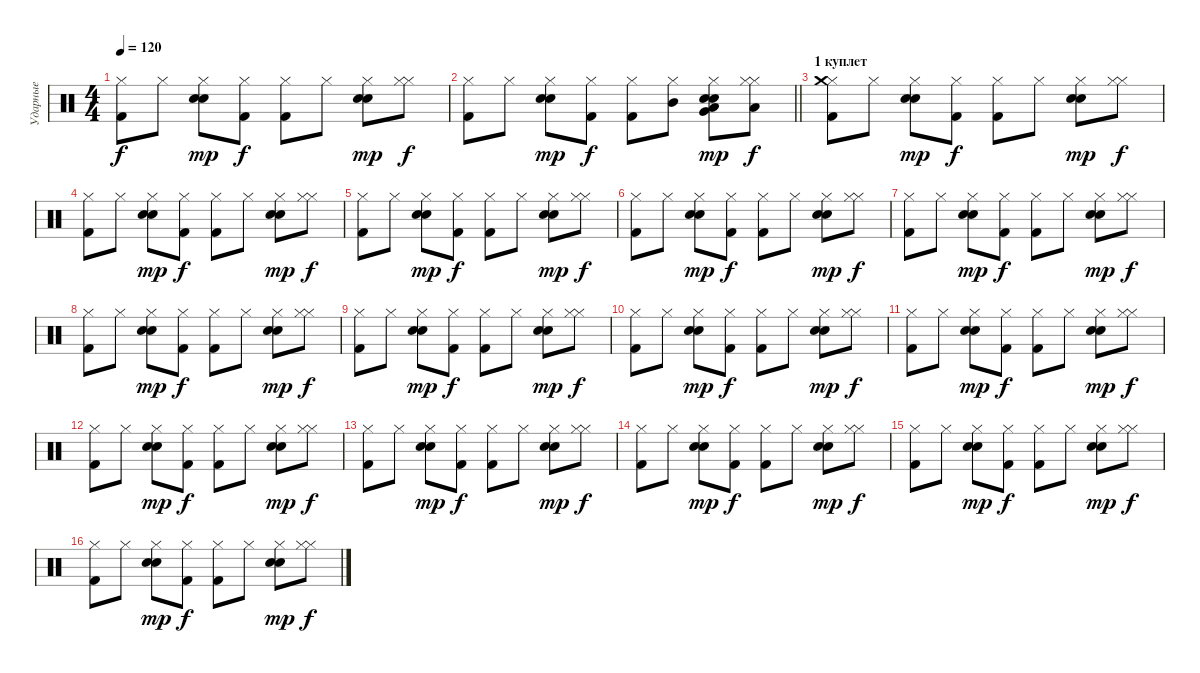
\track ("Ударные" "Ударные") {instrument percussion}
\staff {score}
\articulation defaults
\ts (4 4)
\tempo 120
\clef neutral
\ks c
("Kick (hit) 2" "Hi-Hat (closed)").8{dy f} "Hi-Hat (closed)".8 ("Hand Clap (hit)" "Hi-Hat (closed)" "Electric Snare (hit)").8{dy mp} ("Kick (hit) 2" "Hi-Hat (closed)").8{dy f} ("Kick (hit) 2" "Hi-Hat (closed)").8 "Hi-Hat (closed)".8 ("Hand Clap (hit)" "Hi-Hat (closed)" "Electric Snare (hit)").8{dy mp} ("Hi-Hat (closed)" "Hi-Hat (closed)").8{dy f} |
\barLineRight lightlight
("Kick (hit) 2" "Hi-Hat (closed)").8 "Hi-Hat (closed)".8 ("Hand Clap (hit)" "Hi-Hat (closed)" "Electric Snare (hit)").8{dy mp} ("Kick (hit) 2" "Hi-Hat (closed)").8{dy f} ("Kick (hit) 2" "Hi-Hat (closed)").8 ("Hi-Hat (closed)" "Mid Tom (hit)").8 ("Hand Clap (hit)" "Hi-Hat (closed)" "Electric Snare (hit)" "Low Tom (hit)" "Very Low Tom (hit)").8{dy mp} ("Hi-Hat (closed)" "Hi-Hat (closed)" "Low Floor Tom (hit)").8{dy f} |
\section ("" "1 куплет")
("Kick (hit) 2" "Hi-Hat (closed)" "Crash medium (hit)").8 "Hi-Hat (closed)".8 ("Hand Clap (hit)" "Hi-Hat (closed)" "Electric Snare (hit)").8{dy mp} ("Kick (hit) 2" "Hi-Hat (closed)").8{dy f} ("Kick (hit) 2" "Hi-Hat (closed)").8 "Hi-Hat (closed)".8 ("Hand Clap (hit)" "Hi-Hat (closed)" "Electric Snare (hit)").8{dy mp} ("Hi-Hat (closed)" "Hi-Hat (closed)").8{dy f} |
("Kick (hit) 2" "Hi-Hat (closed)").8 "Hi-Hat (closed)".8 ("Hand Clap (hit)" "Hi-Hat (closed)" "Electric Snare (hit)").8{dy mp} ("Kick (hit) 2" "Hi-Hat (closed)").8{dy f} ("Kick (hit) 2" "Hi-Hat (closed)").8 "Hi-Hat (closed)".8 ("Hand Clap (hit)" "Hi-Hat (closed)" "Electric Snare (hit)").8{dy mp} ("Hi-Hat (closed)" "Hi-Hat (closed)").8{dy f} |
("Kick (hit) 2" "Hi-Hat (closed)").8 "Hi-Hat (closed)".8 ("Hand Clap (hit)" "Hi-Hat (closed)" "Electric Snare (hit)").8{dy mp} ("Kick (hit) 2" "Hi-Hat (closed)").8{dy f} ("Kick (hit) 2" "Hi-Hat (closed)").8 "Hi-Hat (closed)".8 ("Hand Clap (hit)" "Hi-Hat (closed)" "Electric Snare (hit)").8{dy mp} ("Hi-Hat (closed)" "Hi-Hat (closed)").8{dy f} |
("Kick (hit) 2" "Hi-Hat (closed)").8 "Hi-Hat (closed)".8 ("Hand Clap (hit)" "Hi-Hat (closed)" "Electric Snare (hit)").8{dy mp} ("Kick (hit) 2" "Hi-Hat (closed)").8{dy f} ("Kick (hit) 2" "Hi-Hat (closed)").8 "Hi-Hat (closed)".8 ("Hand Clap (hit)" "Hi-Hat (closed)" "Electric Snare (hit)").8{dy mp} ("Hi-Hat (closed)" "Hi-Hat (closed)").8{dy f} |
("Kick (hit) 2" "Hi-Hat (closed)").8 "Hi-Hat (closed)".8 ("Hand Clap (hit)" "Hi-Hat (closed)" "Electric Snare (hit)").8{dy mp} ("Kick (hit) 2" "Hi-Hat (closed)").8{dy f} ("Kick (hit) 2" "Hi-Hat (closed)").8 "Hi-Hat (closed)".8 ("Hand Clap (hit)" "Hi-Hat (closed)" "Electric Snare (hit)").8{dy mp} ("Hi-Hat (closed)" "Hi-Hat (closed)").8{dy f} |
("Kick (hit) 2" "Hi-Hat (closed)").8 "Hi-Hat (closed)".8 ("Hand Clap (hit)" "Hi-Hat (closed)" "Electric Snare (hit)").8{dy mp} ("Kick (hit) 2" "Hi-Hat (closed)").8{dy f} ("Kick (hit) 2" "Hi-Hat (closed)").8 "Hi-Hat (closed)".8 ("Hand Clap (hit)" "Hi-Hat (closed)" "Electric Snare (hit)").8{dy mp} ("Hi-Hat (closed)" "Hi-Hat (closed)").8{dy f} |
("Kick (hit) 2" "Hi-Hat (closed)").8 "Hi-Hat (closed)".8 ("Hand Clap (hit)" "Hi-Hat (closed)" "Electric Snare (hit)").8{dy mp} ("Kick (hit) 2" "Hi-Hat (closed)").8{dy f} ("Kick (hit) 2" "Hi-Hat (closed)").8 "Hi-Hat (closed)".8 ("Hand Clap (hit)" "Hi-Hat (closed)" "Electric Snare (hit)").8{dy mp} ("Hi-Hat (closed)" "Hi-Hat (closed)").8{dy f} |
("Kick (hit) 2" "Hi-Hat (closed)").8 "Hi-Hat (closed)".8 ("Hand Clap (hit)" "Hi-Hat (closed)" "Electric Snare (hit)").8{dy mp} ("Kick (hit) 2" "Hi-Hat (closed)").8{dy f} ("Kick (hit) 2" "Hi-Hat (closed)").8 "Hi-Hat (closed)".8 ("Hand Clap (hit)" "Hi-Hat (closed)" "Electric Snare (hit)").8{dy mp} ("Hi-Hat (closed)" "Hi-Hat (closed)").8{dy f} |
("Kick (hit) 2" "Hi-Hat (closed)").8 "Hi-Hat (closed)".8 ("Hand Clap (hit)" "Hi-Hat (closed)" "Electric Snare (hit)").8{dy mp} ("Kick (hit) 2" "Hi-Hat (closed)").8{dy f} ("Kick (hit) 2" "Hi-Hat (closed)").8 "Hi-Hat (closed)".8 ("Hand Clap (hit)" "Hi-Hat (closed)" "Electric Snare (hit)").8{dy mp} ("Hi-Hat (closed)" "Hi-Hat (closed)").8{dy f} |
("Kick (hit) 2" "Hi-Hat (closed)").8 "Hi-Hat (closed)".8 ("Hand Clap (hit)" "Hi-Hat (closed)" "Electric Snare (hit)").8{dy mp} ("Kick (hit) 2" "Hi-Hat (closed)").8{dy f} ("Kick (hit) 2" "Hi-Hat (closed)").8 "Hi-Hat (closed)".8 ("Hand Clap (hit)" "Hi-Hat (closed)" "Electric Snare (hit)").8{dy mp} ("Hi-Hat (closed)" "Hi-Hat (closed)").8{dy f} |
("Kick (hit) 2" "Hi-Hat (closed)").8 "Hi-Hat (closed)".8 ("Hand Clap (hit)" "Hi-Hat (closed)" "Electric Snare (hit)").8{dy mp} ("Kick (hit) 2" "Hi-Hat (closed)").8{dy f} ("Kick (hit) 2" "Hi-Hat (closed)").8 "Hi-Hat (closed)".8 ("Hand Clap (hit)" "Hi-Hat (closed)" "Electric Snare (hit)").8{dy mp} ("Hi-Hat (closed)" "Hi-Hat (closed)").8{dy f} |
("Kick (hit) 2" "Hi-Hat (closed)").8 "Hi-Hat (closed)".8 ("Hand Clap (hit)" "Hi-Hat (closed)" "Electric Snare (hit)").8{dy mp} ("Kick (hit) 2" "Hi-Hat (closed)").8{dy f} ("Kick (hit) 2" "Hi-Hat (closed)").8 "Hi-Hat (closed)".8 ("Hand Clap (hit)" "Hi-Hat (closed)" "Electric Snare (hit)").8{dy mp} ("Hi-Hat (closed)" "Hi-Hat (closed)").8{dy f} |
("Kick (hit) 2" "Hi-Hat (closed)").8 "Hi-Hat (closed)".8 ("Hand Clap (hit)" "Hi-Hat (closed)" "Electric Snare (hit)").8{dy mp} ("Kick (hit) 2" "Hi-Hat (closed)").8{dy f} ("Kick (hit) 2" "Hi-Hat (closed)").8 "Hi-Hat (closed)".8 ("Hand Clap (hit)" "Hi-Hat (closed)" "Electric Snare (hit)").8{dy mp} ("Hi-Hat (closed)" "Hi-Hat (closed)").8{dy f} |
("Kick (hit) 2" "Hi-Hat (closed)").8 "Hi-Hat (closed)".8 ("Hand Clap (hit)" "Hi-Hat (closed)" "Electric Snare (hit)").8{dy mp} ("Kick (hit) 2" "Hi-Hat (closed)").8{dy f} ("Kick (hit) 2" "Hi-Hat (closed)").8 "Hi-Hat (closed)".8 ("Hand Clap (hit)" "Hi-Hat (closed)" "Electric Snare (hit)").8{dy mp} ("Hi-Hat (closed)" "Hi-Hat (closed)").8{dy f}
